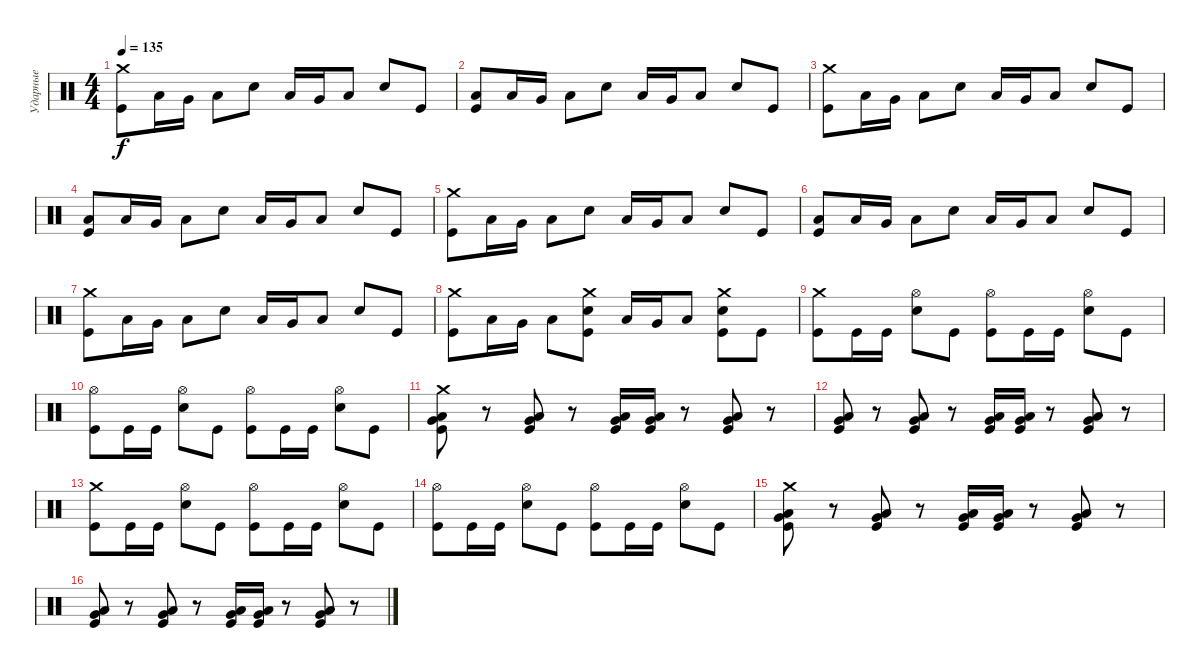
\track ("Ударные" "Ударные") {instrument percussion}
\staff {score}
\articulation defaults
\ts (4 4)
\tempo 135
\clef neutral
\ks c
("Crash medium (hit)" "Kick (hit)").8{dy f} "Low Tom (hit)".16 "Very Low Tom (hit)".16 "Low Floor Tom (hit)".8 "Electric Snare (hit)".8 "Low Tom (hit)".16 "Very Low Tom (hit)".16 "Low Floor Tom (hit)".8 "Electric Snare (hit)".8 "Kick (hit)".8 |
("Low Floor Tom (hit)" "Kick (hit)").8 "Low Tom (hit)".16 "Very Low Tom (hit)".16 "Low Floor Tom (hit)".8 "Electric Snare (hit)".8 "Low Tom (hit)".16 "Very Low Tom (hit)".16 "Low Floor Tom (hit)".8 "Electric Snare (hit)".8 "Kick (hit)".8 |
("Crash medium (hit)" "Kick (hit)").8 "Low Tom (hit)".16 "Very Low Tom (hit)".16 "Low Floor Tom (hit)".8 "Electric Snare (hit)".8 "Low Tom (hit)".16 "Very Low Tom (hit)".16 "Low Floor Tom (hit)".8 "Electric Snare (hit)".8 "Kick (hit)".8 |
("Low Floor Tom (hit)" "Kick (hit)").8 "Low Tom (hit)".16 "Very Low Tom (hit)".16 "Low Floor Tom (hit)".8 "Electric Snare (hit)".8 "Low Tom (hit)".16 "Very Low Tom (hit)".16 "Low Floor Tom (hit)".8 "Electric Snare (hit)".8 "Kick (hit)".8 |
("Crash medium (hit)" "Kick (hit)").8 "Low Tom (hit)".16 "Very Low Tom (hit)".16 "Low Floor Tom (hit)".8 "Electric Snare (hit)".8 "Low Tom (hit)".16 "Very Low Tom (hit)".16 "Low Floor Tom (hit)".8 "Electric Snare (hit)".8 "Kick (hit)".8 |
("Low Floor Tom (hit)" "Kick (hit)").8 "Low Tom (hit)".16 "Very Low Tom (hit)".16 "Low Floor Tom (hit)".8 "Electric Snare (hit)".8 "Low Tom (hit)".16 "Very Low Tom (hit)".16 "Low Floor Tom (hit)".8 "Electric Snare (hit)".8 "Kick (hit)".8 |
("Crash medium (hit)" "Kick (hit)").8 "Low Tom (hit)".16 "Very Low Tom (hit)".16 "Low Floor Tom (hit)".8 "Electric Snare (hit)".8 "Low Tom (hit)".16 "Very Low Tom (hit)".16 "Low Floor Tom (hit)".8 "Electric Snare (hit)".8 "Kick (hit)".8 |
("Crash medium (hit)" "Kick (hit)").8 "Low Tom (hit)".16 "Very Low Tom (hit)".16 "Low Floor Tom (hit)".8 ("Crash medium (hit)" "Electric Snare (hit)" "Kick (hit)").8 "Low Tom (hit)".16 "Very Low Tom (hit)".16 "Low Floor Tom (hit)".8 ("Crash medium (hit)" "Electric Snare (hit)" "Kick (hit)").8 "Kick (hit)".8 |
("Crash medium (hit)" "Kick (hit)").8 "Kick (hit)".16 "Kick (hit)".16 ("Hi-Hat (open)" "Electric Snare (hit)").8 "Kick (hit)".8 ("Hi-Hat (open)" "Kick (hit)").8 "Kick (hit)".16 "Kick (hit)".16 ("Hi-Hat (open)" "Electric Snare (hit)").8 "Kick (hit)".8 |
("Hi-Hat (open)" "Kick (hit)").8 "Kick (hit)".16 "Kick (hit)".16 ("Hi-Hat (open)" "Electric Snare (hit)").8 "Kick (hit)".8 ("Hi-Hat (open)" "Kick (hit)").8 "Kick (hit)".16 "Kick (hit)".16 ("Hi-Hat (open)" "Electric Snare (hit)").8 "Kick (hit)".8 |
("Crash medium (hit)" "Very Low Tom (hit)" "Low Floor Tom (hit)" "Kick (hit)").8 r.8 ("Very Low Tom (hit)" "Low Floor Tom (hit)" "Kick (hit)").8 r.8 ("Very Low Tom (hit)" "Low Floor Tom (hit)" "Kick (hit)").16 ("Very Low Tom (hit)" "Low Floor Tom (hit)" "Kick (hit)").16 r.8 ("Very Low Tom (hit)" "Low Floor Tom (hit)" "Kick (hit)").8 r.8 |
("Very Low Tom (hit)" "Low Floor Tom (hit)" "Kick (hit)").8 r.8 ("Very Low Tom (hit)" "Low Floor Tom (hit)" "Kick (hit)").8 r.8 ("Very Low Tom (hit)" "Low Floor Tom (hit)" "Kick (hit)").16 ("Very Low Tom (hit)" "Low Floor Tom (hit)" "Kick (hit)").16 r.8 ("Very Low Tom (hit)" "Low Floor Tom (hit)" "Kick (hit)").8 r.8 |
("Crash medium (hit)" "Kick (hit)").8 "Kick (hit)".16 "Kick (hit)".16 ("Hi-Hat (open)" "Electric Snare (hit)").8 "Kick (hit)".8 ("Hi-Hat (open)" "Kick (hit)").8 "Kick (hit)".16 "Kick (hit)".16 ("Hi-Hat (open)" "Electric Snare (hit)").8 "Kick (hit)".8 |
("Hi-Hat (open)" "Kick (hit)").8 "Kick (hit)".16 "Kick (hit)".16 ("Hi-Hat (open)" "Electric Snare (hit)").8 "Kick (hit)".8 ("Hi-Hat (open)" "Kick (hit)").8 "Kick (hit)".16 "Kick (hit)".16 ("Hi-Hat (open)" "Electric Snare (hit)").8 "Kick (hit)".8 |
("Crash medium (hit)" "Very Low Tom (hit)" "Low Floor Tom (hit)" "Kick (hit)").8 r.8 ("Very Low Tom (hit)" "Low Floor Tom (hit)" "Kick (hit)").8 r.8 ("Very Low Tom (hit)" "Low Floor Tom (hit)" "Kick (hit)").16 ("Very Low Tom (hit)" "Low Floor Tom (hit)" "Kick (hit)").16 r.8 ("Very Low Tom (hit)" "Low Floor Tom (hit)" "Kick (hit)").8 r.8 |
("Very Low Tom (hit)" "Low Floor Tom (hit)" "Kick (hit)").8 r.8 ("Very Low Tom (hit)" "Low Floor Tom (hit)" "Kick (hit)").8 r.8 ("Very Low Tom (hit)" "Low Floor Tom (hit)" "Kick (hit)").16 ("Very Low Tom (hit)" "Low Floor Tom (hit)" "Kick (hit)").16 r.8 ("Very Low Tom (hit)" "Low Floor Tom (hit)" "Kick (hit)").8 r.8
